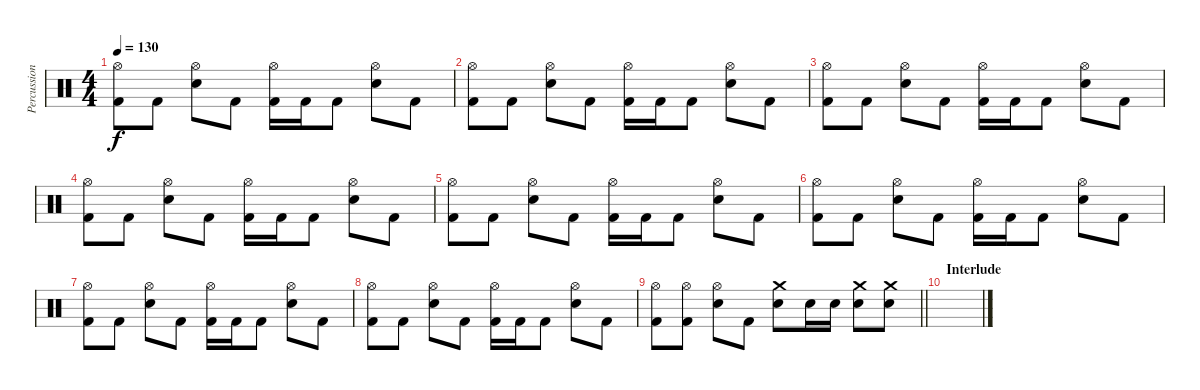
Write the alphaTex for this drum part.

\track ("Percussion" "Percussion") {instrument percussion}
\staff {score}
\articulation defaults
\ts (4 4)
\tempo 130
\clef neutral
\ks c
("Hi-Hat (open)" "Kick (hit) 2").8{dy f} "Kick (hit) 2".8 ("Hi-Hat (open)" "Electric Snare (hit)").8 "Kick (hit) 2".8 ("Hi-Hat (open)" "Kick (hit) 2").16 "Kick (hit) 2".16 "Kick (hit) 2".8 ("Hi-Hat (open)" "Electric Snare (hit)").8 "Kick (hit) 2".8 |
("Hi-Hat (open)" "Kick (hit) 2").8 "Kick (hit) 2".8 ("Hi-Hat (open)" "Electric Snare (hit)").8 "Kick (hit) 2".8 ("Hi-Hat (open)" "Kick (hit) 2").16 "Kick (hit) 2".16 "Kick (hit) 2".8 ("Hi-Hat (open)" "Electric Snare (hit)").8 "Kick (hit) 2".8 |
("Hi-Hat (open)" "Kick (hit) 2").8 "Kick (hit) 2".8 ("Hi-Hat (open)" "Electric Snare (hit)").8 "Kick (hit) 2".8 ("Hi-Hat (open)" "Kick (hit) 2").16 "Kick (hit) 2".16 "Kick (hit) 2".8 ("Hi-Hat (open)" "Electric Snare (hit)").8 "Kick (hit) 2".8 |
("Hi-Hat (open)" "Kick (hit) 2").8 "Kick (hit) 2".8 ("Hi-Hat (open)" "Electric Snare (hit)").8 "Kick (hit) 2".8 ("Hi-Hat (open)" "Kick (hit) 2").16 "Kick (hit) 2".16 "Kick (hit) 2".8 ("Hi-Hat (open)" "Electric Snare (hit)").8 "Kick (hit) 2".8 |
("Hi-Hat (open)" "Kick (hit) 2").8 "Kick (hit) 2".8 ("Hi-Hat (open)" "Electric Snare (hit)").8 "Kick (hit) 2".8 ("Hi-Hat (open)" "Kick (hit) 2").16 "Kick (hit) 2".16 "Kick (hit) 2".8 ("Hi-Hat (open)" "Electric Snare (hit)").8 "Kick (hit) 2".8 |
("Hi-Hat (open)" "Kick (hit) 2").8 "Kick (hit) 2".8 ("Hi-Hat (open)" "Electric Snare (hit)").8 "Kick (hit) 2".8 ("Hi-Hat (open)" "Kick (hit) 2").16 "Kick (hit) 2".16 "Kick (hit) 2".8 ("Hi-Hat (open)" "Electric Snare (hit)").8 "Kick (hit) 2".8 |
("Hi-Hat (open)" "Kick (hit) 2").8 "Kick (hit) 2".8 ("Hi-Hat (open)" "Electric Snare (hit)").8 "Kick (hit) 2".8 ("Hi-Hat (open)" "Kick (hit) 2").16 "Kick (hit) 2".16 "Kick (hit) 2".8 ("Hi-Hat (open)" "Electric Snare (hit)").8 "Kick (hit) 2".8 |
("Hi-Hat (open)" "Kick (hit) 2").8 "Kick (hit) 2".8 ("Hi-Hat (open)" "Electric Snare (hit)").8 "Kick (hit) 2".8 ("Hi-Hat (open)" "Kick (hit) 2").16 "Kick (hit) 2".16 "Kick (hit) 2".8 ("Hi-Hat (open)" "Electric Snare (hit)").8 "Kick (hit) 2".8 |
\barLineRight lightlight
("Hi-Hat (open)" "Kick (hit) 2").8 ("Hi-Hat (open)" "Kick (hit) 2").8 ("Hi-Hat (open)" "Electric Snare (hit)").8 "Kick (hit) 2".8 ("Crash medium (hit)" "Electric Snare (hit)").8 "Electric Snare (hit)".16 "Electric Snare (hit)".16 ("Crash medium (hit)" "Electric Snare (hit)").8 ("Crash medium (hit)" "Electric Snare (hit)").8 |
\section ("" "Interlude")
